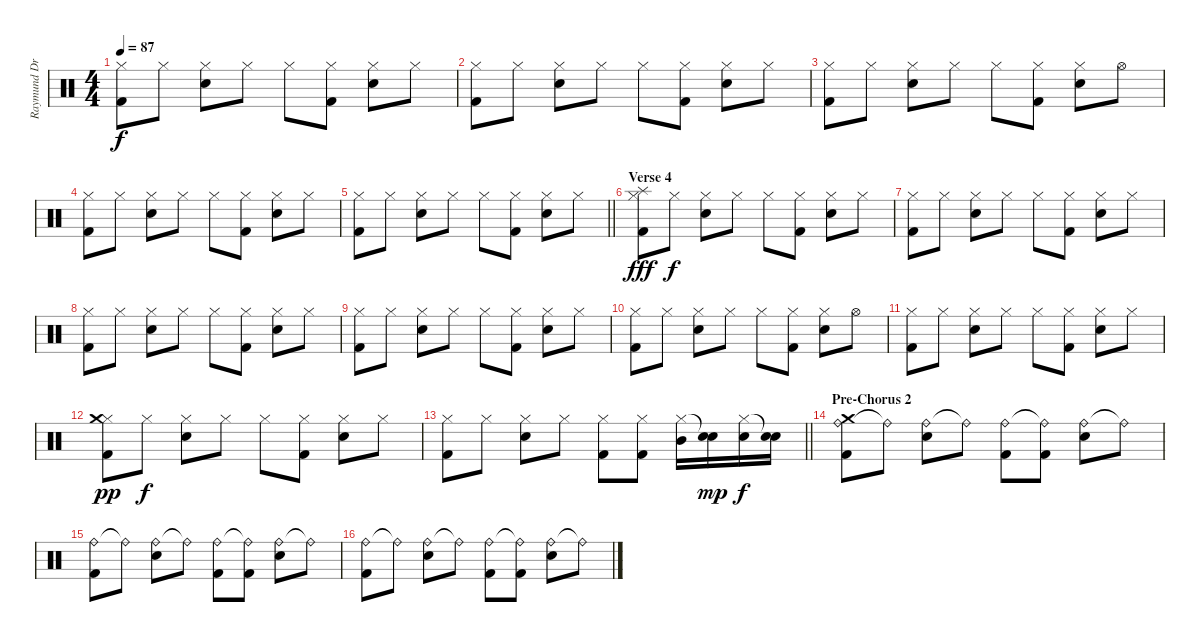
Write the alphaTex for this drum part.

\track ("Raymund Drums" "Raymund Dr") {instrument percussion}
\staff {score}
\articulation defaults
\ts (4 4)
\tempo 87
\clef neutral
\ks c
("Hi-Hat (closed)" "Kick (hit) 2").8{dy f} "Hi-Hat (closed)".8 ("Hi-Hat (closed)" "Snare (hit) 2").8 "Hi-Hat (closed)".8 "Hi-Hat (closed)".8 ("Hi-Hat (closed)" "Kick (hit) 2").8 ("Hi-Hat (closed)" "Snare (hit) 2").8 "Hi-Hat (closed)".8 |
("Hi-Hat (closed)" "Kick (hit) 2").8 "Hi-Hat (closed)".8 ("Hi-Hat (closed)" "Snare (hit) 2").8 "Hi-Hat (closed)".8 "Hi-Hat (closed)".8 ("Hi-Hat (closed)" "Kick (hit) 2").8 ("Hi-Hat (closed)" "Snare (hit) 2").8 "Hi-Hat (closed)".8 |
("Hi-Hat (closed)" "Kick (hit) 2").8 "Hi-Hat (closed)".8 ("Hi-Hat (closed)" "Snare (hit) 2").8 "Hi-Hat (closed)".8 "Hi-Hat (closed)".8 ("Hi-Hat (closed)" "Kick (hit) 2").8 ("Hi-Hat (closed)" "Snare (hit) 2").8 "Hi-Hat (open)".8 |
("Hi-Hat (closed)" "Kick (hit) 2").8 "Hi-Hat (closed)".8 ("Hi-Hat (closed)" "Snare (hit) 2").8 "Hi-Hat (closed)".8 "Hi-Hat (closed)".8 ("Hi-Hat (closed)" "Kick (hit) 2").8 ("Hi-Hat (closed)" "Snare (hit) 2").8 "Hi-Hat (closed)".8 |
\barLineRight lightlight
("Hi-Hat (closed)" "Kick (hit) 2").8 "Hi-Hat (closed)".8 ("Hi-Hat (closed)" "Snare (hit) 2").8 "Hi-Hat (closed)".8 "Hi-Hat (closed)".8 ("Hi-Hat (closed)" "Kick (hit) 2").8 ("Hi-Hat (closed)" "Snare (hit) 2").8 "Hi-Hat (closed)".8 |
\section ("" "Verse 4")
("Hi-Hat (closed)" "Kick (hit) 2" "Splash (hit)").8{dy fff} "Hi-Hat (closed)".8{dy f} ("Hi-Hat (closed)" "Snare (hit) 2").8 "Hi-Hat (closed)".8 "Hi-Hat (closed)".8 ("Hi-Hat (closed)" "Kick (hit) 2").8 ("Hi-Hat (closed)" "Snare (hit) 2").8 "Hi-Hat (closed)".8 |
("Hi-Hat (closed)" "Kick (hit) 2").8 "Hi-Hat (closed)".8 ("Hi-Hat (closed)" "Snare (hit) 2").8 "Hi-Hat (closed)".8 "Hi-Hat (closed)".8 ("Hi-Hat (closed)" "Kick (hit) 2").8 ("Hi-Hat (closed)" "Snare (hit) 2").8 "Hi-Hat (closed)".8 |
("Hi-Hat (closed)" "Kick (hit) 2").8 "Hi-Hat (closed)".8 ("Hi-Hat (closed)" "Snare (hit) 2").8 "Hi-Hat (closed)".8 "Hi-Hat (closed)".8 ("Hi-Hat (closed)" "Kick (hit) 2").8 ("Hi-Hat (closed)" "Snare (hit) 2").8 "Hi-Hat (closed)".8 |
("Hi-Hat (closed)" "Kick (hit) 2").8 "Hi-Hat (closed)".8 ("Hi-Hat (closed)" "Snare (hit) 2").8 "Hi-Hat (closed)".8 "Hi-Hat (closed)".8 ("Hi-Hat (closed)" "Kick (hit) 2").8 ("Hi-Hat (closed)" "Snare (hit) 2").8 "Hi-Hat (closed)".8 |
("Hi-Hat (closed)" "Kick (hit) 2").8 "Hi-Hat (closed)".8 ("Hi-Hat (closed)" "Snare (hit) 2").8 "Hi-Hat (closed)".8 "Hi-Hat (closed)".8 ("Hi-Hat (closed)" "Kick (hit) 2").8 ("Hi-Hat (closed)" "Snare (hit) 2").8 "Hi-Hat (open)".8 |
("Hi-Hat (closed)" "Kick (hit) 2").8 "Hi-Hat (closed)".8 ("Hi-Hat (closed)" "Snare (hit) 2").8 "Hi-Hat (closed)".8 "Hi-Hat (closed)".8 ("Hi-Hat (closed)" "Kick (hit) 2").8 ("Hi-Hat (closed)" "Snare (hit) 2").8 "Hi-Hat (closed)".8 |
("Hi-Hat (closed)" "Kick (hit) 2" "Crash medium (hit)").8{dy pp} "Hi-Hat (closed)".8{dy f} ("Hi-Hat (closed)" "Snare (hit) 2").8 "Hi-Hat (closed)".8 "Hi-Hat (closed)".8 ("Hi-Hat (closed)" "Kick (hit) 2").8 ("Hi-Hat (closed)" "Snare (hit) 2").8 "Hi-Hat (closed)".8 |
\barLineRight lightlight
("Hi-Hat (closed)" "Kick (hit) 2").8 "Hi-Hat (closed)".8 ("Hi-Hat (closed)" "Snare (hit) 2").8 "Hi-Hat (closed)".8 ("Hi-Hat (closed)" "Kick (hit) 2").8 ("Hi-Hat (closed)" "Kick (hit) 2").8 ("Hi-Hat (closed)" "Mid Tom (hit)").16 ("Snare (hit)"{t} "Snare (hit) 2").16{dy mp} ("Hi-Hat (closed)" "Snare (hit) 2").16{dy f} ("Snare (hit)"{t} "Snare (hit) 2").16 |
\section ("" "Pre-Chorus 2")
("Ride (bell)" "Kick (hit) 2" "Crash medium (hit)").8 "Ride (bell)"{t}.8 ("Ride (bell)" "Snare (hit) 2").8 "Ride (bell)"{t}.8 ("Ride (bell)" "Kick (hit) 2").8 ("Ride (bell)"{t} "Kick (hit) 2").8 ("Ride (bell)" "Snare (hit) 2").8 "Ride (bell)"{t}.8 |
("Ride (bell)" "Kick (hit) 2").8 "Ride (bell)"{t}.8 ("Ride (bell)" "Snare (hit) 2").8 "Ride (bell)"{t}.8 ("Ride (bell)" "Kick (hit) 2").8 ("Ride (bell)"{t} "Kick (hit) 2").8 ("Ride (bell)" "Snare (hit) 2").8 "Ride (bell)"{t}.8 |
("Ride (bell)" "Kick (hit) 2").8 "Ride (bell)"{t}.8 ("Ride (bell)" "Snare (hit) 2").8 "Ride (bell)"{t}.8 ("Ride (bell)" "Kick (hit) 2").8 ("Ride (bell)"{t} "Kick (hit) 2").8 ("Ride (bell)" "Snare (hit) 2").8 "Ride (bell)"{t}.8
